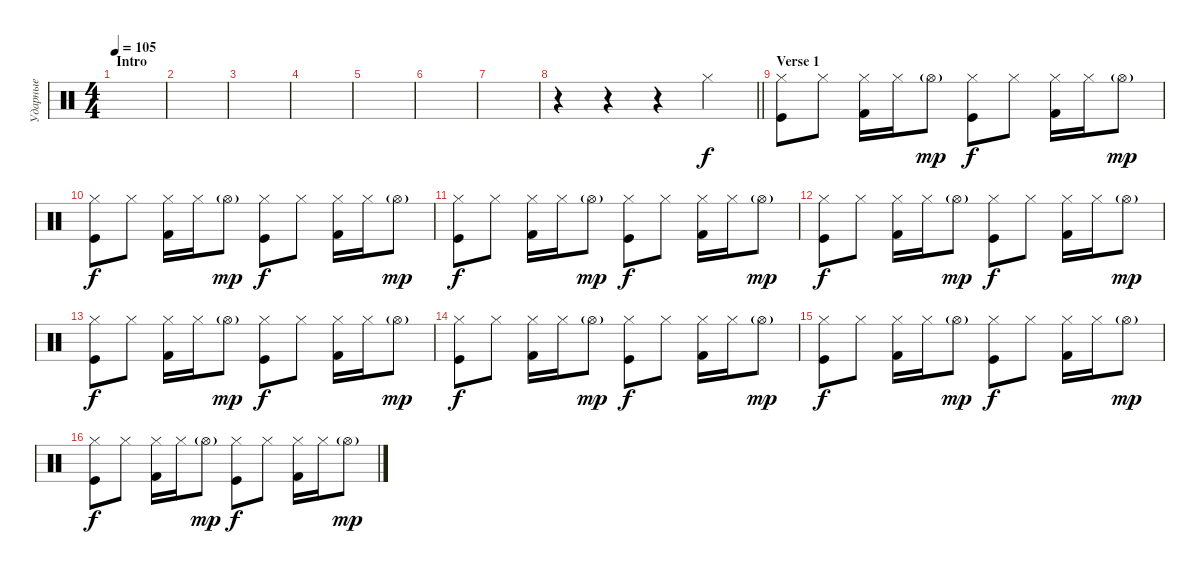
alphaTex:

\track ("Ударные" "Ударные") {instrument percussion}
\staff {score}
\articulation defaults
\ts (4 4)
\section ("" "Intro")
\tempo 105
\clef neutral
\ks c
|
|
|
|
|
|
|
\barLineRight lightlight
r.4 r.4 r.4 "Hi-Hat (closed)".4 |
\section ("" "Verse 1")
("Hi-Hat (closed)" "Kick (hit)").8 "Hi-Hat (closed)".8 ("Hi-Hat (closed)" "Kick (hit) 2").16 "Hi-Hat (closed)".16 "Hi-Hat (open)"{g}.8{dy mp} ("Hi-Hat (closed)" "Kick (hit)").8{dy f} "Hi-Hat (closed)".8 ("Hi-Hat (closed)" "Kick (hit) 2").16 "Hi-Hat (closed)".16 "Hi-Hat (open)"{g}.8{dy mp} |
("Hi-Hat (closed)" "Kick (hit)").8{dy f} "Hi-Hat (closed)".8 ("Hi-Hat (closed)" "Kick (hit) 2").16 "Hi-Hat (closed)".16 "Hi-Hat (open)"{g}.8{dy mp} ("Hi-Hat (closed)" "Kick (hit)").8{dy f} "Hi-Hat (closed)".8 ("Hi-Hat (closed)" "Kick (hit) 2").16 "Hi-Hat (closed)".16 "Hi-Hat (open)"{g}.8{dy mp} |
("Hi-Hat (closed)" "Kick (hit)").8{dy f} "Hi-Hat (closed)".8 ("Hi-Hat (closed)" "Kick (hit) 2").16 "Hi-Hat (closed)".16 "Hi-Hat (open)"{g}.8{dy mp} ("Hi-Hat (closed)" "Kick (hit)").8{dy f} "Hi-Hat (closed)".8 ("Hi-Hat (closed)" "Kick (hit) 2").16 "Hi-Hat (closed)".16 "Hi-Hat (open)"{g}.8{dy mp} |
("Hi-Hat (closed)" "Kick (hit)").8{dy f} "Hi-Hat (closed)".8 ("Hi-Hat (closed)" "Kick (hit) 2").16 "Hi-Hat (closed)".16 "Hi-Hat (open)"{g}.8{dy mp} ("Hi-Hat (closed)" "Kick (hit)").8{dy f} "Hi-Hat (closed)".8 ("Hi-Hat (closed)" "Kick (hit) 2").16 "Hi-Hat (closed)".16 "Hi-Hat (open)"{g}.8{dy mp} |
("Hi-Hat (closed)" "Kick (hit)").8{dy f} "Hi-Hat (closed)".8 ("Hi-Hat (closed)" "Kick (hit) 2").16 "Hi-Hat (closed)".16 "Hi-Hat (open)"{g}.8{dy mp} ("Hi-Hat (closed)" "Kick (hit)").8{dy f} "Hi-Hat (closed)".8 ("Hi-Hat (closed)" "Kick (hit) 2").16 "Hi-Hat (closed)".16 "Hi-Hat (open)"{g}.8{dy mp} |
("Hi-Hat (closed)" "Kick (hit)").8{dy f} "Hi-Hat (closed)".8 ("Hi-Hat (closed)" "Kick (hit) 2").16 "Hi-Hat (closed)".16 "Hi-Hat (open)"{g}.8{dy mp} ("Hi-Hat (closed)" "Kick (hit)").8{dy f} "Hi-Hat (closed)".8 ("Hi-Hat (closed)" "Kick (hit) 2").16 "Hi-Hat (closed)".16 "Hi-Hat (open)"{g}.8{dy mp} |
("Hi-Hat (closed)" "Kick (hit)").8{dy f} "Hi-Hat (closed)".8 ("Hi-Hat (closed)" "Kick (hit) 2").16 "Hi-Hat (closed)".16 "Hi-Hat (open)"{g}.8{dy mp} ("Hi-Hat (closed)" "Kick (hit)").8{dy f} "Hi-Hat (closed)".8 ("Hi-Hat (closed)" "Kick (hit) 2").16 "Hi-Hat (closed)".16 "Hi-Hat (open)"{g}.8{dy mp} |
("Hi-Hat (closed)" "Kick (hit)").8{dy f} "Hi-Hat (closed)".8 ("Hi-Hat (closed)" "Kick (hit) 2").16 "Hi-Hat (closed)".16 "Hi-Hat (open)"{g}.8{dy mp} ("Hi-Hat (closed)" "Kick (hit)").8{dy f} "Hi-Hat (closed)".8 ("Hi-Hat (closed)" "Kick (hit) 2").16 "Hi-Hat (closed)".16 "Hi-Hat (open)"{g}.8{dy mp}
